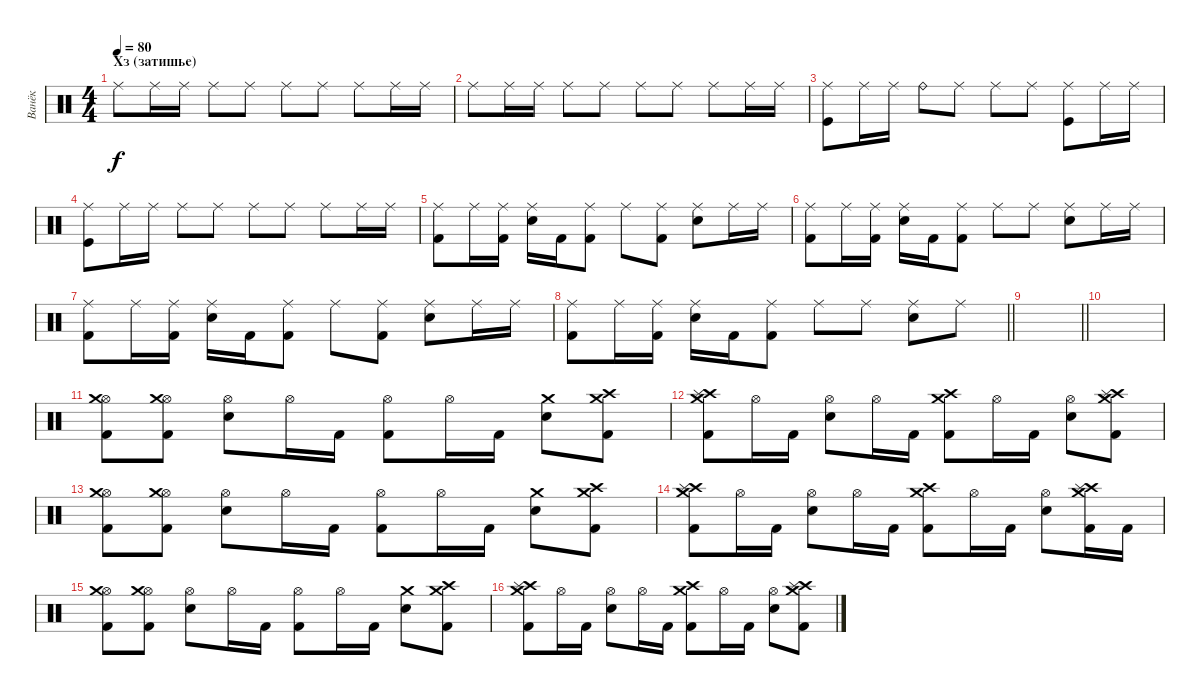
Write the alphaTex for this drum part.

\track ("Ванёк" "Ванёк") {instrument percussion}
\staff {score}
\articulation defaults
\ts (4 4)
\section ("" "Хз (затишье)")
\tempo 80
\clef neutral
\ks c "Ride (middle)".8{dy f} "Ride (middle)".16 "Ride (middle)".16 "Ride (middle)".8 "Ride (middle)".8 "Ride (middle)".8 "Ride (middle)".8 "Ride (middle)".8 "Ride (middle)".16 "Ride (middle)".16
|
"Ride (middle)".8 "Ride (middle)".16 "Ride (middle)".16 "Ride (middle)".8 "Ride (middle)".8 "Ride (middle)".8 "Ride (middle)".8 "Ride (middle)".8 "Ride (middle)".16 "Ride (middle)".16 |
("Ride (middle)" "Kick (hit)").8 "Ride (middle)".16 "Ride (middle)".16 "Ride (bell)".8 "Ride (middle)".8 "Ride (middle)".8 "Ride (middle)".8 ("Ride (middle)" "Kick (hit)").8 "Ride (middle)".16 "Ride (middle)".16 |
("Ride (middle)" "Kick (hit)").8 "Ride (middle)".16 "Ride (middle)".16 "Ride (middle)".8 "Ride (middle)".8 "Ride (middle)".8 "Ride (middle)".8 "Ride (middle)".8 "Ride (middle)".16 "Ride (middle)".16 |
("Ride (middle)" "Kick (hit) 2").8 "Ride (middle)".16 ("Ride (middle)" "Kick (hit) 2").16 ("Ride (middle)" "Snare (hit) 2").16 "Kick (hit) 2".16 ("Ride (middle)" "Kick (hit) 2").8 "Ride (middle)".8 ("Ride (middle)" "Kick (hit) 2").8 ("Ride (middle)" "Snare (hit) 2").8 "Ride (middle)".16 "Ride (middle)".16 |
("Ride (middle)" "Kick (hit) 2").8 "Ride (middle)".16 ("Ride (middle)" "Kick (hit) 2").16 ("Ride (middle)" "Snare (hit) 2").16 "Kick (hit) 2".16 ("Ride (middle)" "Kick (hit) 2").8 "Ride (middle)".8 "Ride (middle)".8 ("Ride (middle)" "Snare (hit) 2").8 "Ride (middle)".16 "Ride (middle)".16 |
("Ride (middle)" "Kick (hit) 2").8 "Ride (middle)".16 ("Ride (middle)" "Kick (hit) 2").16 ("Ride (middle)" "Snare (hit) 2").16 "Kick (hit) 2".16 ("Ride (middle)" "Kick (hit) 2").8 "Ride (middle)".8 ("Ride (middle)" "Kick (hit) 2").8 ("Ride (middle)" "Snare (hit) 2").8 "Ride (middle)".16 "Ride (middle)".16 |
\barLineRight lightlight
("Ride (middle)" "Kick (hit) 2").8 "Ride (middle)".16 ("Ride (middle)" "Kick (hit) 2").16 ("Ride (middle)" "Snare (hit) 2").16 "Kick (hit) 2".16 ("Ride (middle)" "Kick (hit) 2").8 "Ride (middle)".8 "Ride (middle)".8 ("Ride (middle)" "Snare (hit) 2").8 "Ride (middle)".8 |
\barLineRight lightlight
|
|
("Hi-Hat (open)" "Crash medium (hit)" "Kick (hit) 2").8 ("Hi-Hat (open)" "Crash medium (hit)" "Kick (hit) 2").8 ("Hi-Hat (open)" "Snare (hit) 2").8 "Hi-Hat (open)".16 "Kick (hit) 2".16 ("Hi-Hat (open)" "Kick (hit) 2").8 "Hi-Hat (open)".16 "Kick (hit) 2".16 ("Crash medium (hit)" "Snare (hit) 2").8 ("Crash high (hit)" "Crash medium (hit)" "Kick (hit) 2").8 |
("Crash high (hit)" "Crash medium (hit)" "Splash (hit)" "Kick (hit) 2").8 "Hi-Hat (open)".16 "Kick (hit) 2".16 ("Hi-Hat (open)" "Snare (hit) 2").8 "Hi-Hat (open)".16 "Kick (hit) 2".16 ("Crash high (hit)" "Crash medium (hit)" "Kick (hit) 2").8 "Hi-Hat (open)".16 "Kick (hit) 2".16 ("Hi-Hat (open)" "Snare (hit) 2").8 ("Crash high (hit)" "Crash medium (hit)" "Splash (hit)" "Kick (hit) 2").8 |
("Hi-Hat (open)" "Crash medium (hit)" "Kick (hit) 2").8 ("Hi-Hat (open)" "Crash medium (hit)" "Kick (hit) 2").8 ("Hi-Hat (open)" "Snare (hit) 2").8 "Hi-Hat (open)".16 "Kick (hit) 2".16 ("Hi-Hat (open)" "Kick (hit) 2").8 "Hi-Hat (open)".16 "Kick (hit) 2".16 ("Crash medium (hit)" "Snare (hit) 2").8 ("Crash high (hit)" "Crash medium (hit)" "Kick (hit) 2").8 |
("Crash high (hit)" "Crash medium (hit)" "Splash (hit)" "Kick (hit) 2").8 "Hi-Hat (open)".16 "Kick (hit) 2".16 ("Hi-Hat (open)" "Snare (hit) 2").8 "Hi-Hat (open)".16 "Kick (hit) 2".16 ("Crash high (hit)" "Crash medium (hit)" "Kick (hit) 2").8 "Hi-Hat (open)".16 "Kick (hit) 2".16 ("Hi-Hat (open)" "Snare (hit) 2").8 ("Crash high (hit)" "Crash medium (hit)" "Splash (hit)" "Kick (hit) 2").16 "Kick (hit) 2".16 |
("Hi-Hat (open)" "Crash medium (hit)" "Kick (hit) 2").8 ("Hi-Hat (open)" "Crash medium (hit)" "Kick (hit) 2").8 ("Hi-Hat (open)" "Snare (hit) 2").8 "Hi-Hat (open)".16 "Kick (hit) 2".16 ("Hi-Hat (open)" "Kick (hit) 2").8 "Hi-Hat (open)".16 "Kick (hit) 2".16 ("Crash medium (hit)" "Snare (hit) 2").8 ("Crash high (hit)" "Crash medium (hit)" "Kick (hit) 2").8 |
("Crash high (hit)" "Crash medium (hit)" "Splash (hit)" "Kick (hit) 2").8 "Hi-Hat (open)".16 "Kick (hit) 2".16 ("Hi-Hat (open)" "Snare (hit) 2").8 "Hi-Hat (open)".16 "Kick (hit) 2".16 ("Crash high (hit)" "Crash medium (hit)" "Kick (hit) 2").8 "Hi-Hat (open)".16 "Kick (hit) 2".16 ("Hi-Hat (open)" "Snare (hit) 2").8 ("Crash high (hit)" "Crash medium (hit)" "Splash (hit)" "Kick (hit) 2").8
